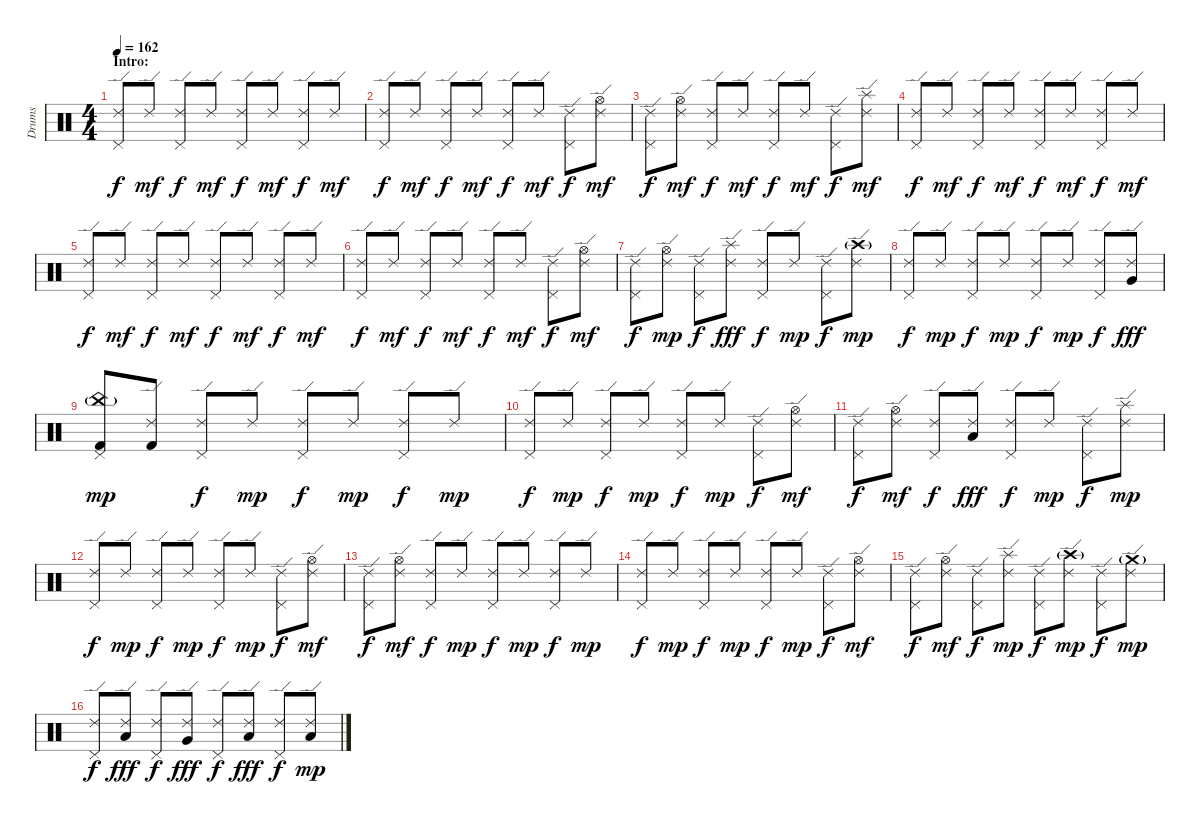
\track ("Drums" "Drums") {instrument percussion}
\staff {score}
\articulation defaults
\ts (4 4)
\section ("" "Intro:")
\tempo 162
\clef neutral
\ks c
("Ride (edge) 2" "Pedal Hi-Hat (hit)").8{dy f} "Ride (edge) 2".8{dy mf} ("Ride (edge) 2" "Pedal Hi-Hat (hit)").8{dy f} "Ride (edge) 2".8{dy mf} ("Ride (edge) 2" "Pedal Hi-Hat (hit)").8{dy f} "Ride (edge) 2".8{dy mf} ("Ride (edge) 2" "Pedal Hi-Hat (hit)").8{dy f} "Ride (edge) 2".8{dy mf} |
("Ride (edge) 2" "Pedal Hi-Hat (hit)").8{dy f} "Ride (edge) 2".8{dy mf} ("Ride (edge) 2" "Pedal Hi-Hat (hit)").8{dy f} "Ride (edge) 2".8{dy mf} ("Ride (edge) 2" "Pedal Hi-Hat (hit)").8{dy f} "Ride (edge) 2".8{dy mf} ("Ride (edge) 2" "Pedal Hi-Hat (hit)").8{dy f} ("Ride (edge) 2" "Hi-Hat (open)").8{dy mf} |
("Ride (edge) 2" "Pedal Hi-Hat (hit)").8{dy f} ("Ride (edge) 2" "Hi-Hat (open)").8{dy mf} ("Ride (edge) 2" "Pedal Hi-Hat (hit)").8{dy f} "Ride (edge) 2".8{dy mf} ("Ride (edge) 2" "Pedal Hi-Hat (hit)").8{dy f} "Ride (edge) 2".8{dy mf} ("Ride (edge) 2" "Pedal Hi-Hat (hit)").8{dy f} ("Ride (edge) 2" "Splash (hit)").8{dy mf} |
("Ride (edge) 2" "Pedal Hi-Hat (hit)").8{dy f} "Ride (edge) 2".8{dy mf} ("Ride (edge) 2" "Pedal Hi-Hat (hit)").8{dy f} "Ride (edge) 2".8{dy mf} ("Ride (edge) 2" "Pedal Hi-Hat (hit)").8{dy f} "Ride (edge) 2".8{dy mf} ("Ride (edge) 2" "Pedal Hi-Hat (hit)").8{dy f} "Ride (edge) 2".8{dy mf} |
("Ride (edge) 2" "Pedal Hi-Hat (hit)").8{dy f} "Ride (edge) 2".8{dy mf} ("Ride (edge) 2" "Pedal Hi-Hat (hit)").8{dy f} "Ride (edge) 2".8{dy mf} ("Ride (edge) 2" "Pedal Hi-Hat (hit)").8{dy f} "Ride (edge) 2".8{dy mf} ("Ride (edge) 2" "Pedal Hi-Hat (hit)").8{dy f} "Ride (edge) 2".8{dy mf} |
("Ride (edge) 2" "Pedal Hi-Hat (hit)").8{dy f} "Ride (edge) 2".8{dy mf} ("Ride (edge) 2" "Pedal Hi-Hat (hit)").8{dy f} "Ride (edge) 2".8{dy mf} ("Ride (edge) 2" "Pedal Hi-Hat (hit)").8{dy f} "Ride (edge) 2".8{dy mf} ("Ride (edge) 2" "Pedal Hi-Hat (hit)").8{dy f} ("Ride (edge) 2" "Hi-Hat (open)").8{dy mf} |
("Ride (edge) 2" "Pedal Hi-Hat (hit)").8{dy f} ("Ride (edge) 2" "Hi-Hat (open)").8{dy mp} ("Ride (edge) 2" "Pedal Hi-Hat (hit)").8{dy f} ("Ride (edge) 2" "Splash (hit)").8{dy fff} ("Ride (edge) 2" "Pedal Hi-Hat (hit)").8{dy f} "Ride (edge) 2".8{dy mp} ("Ride (edge) 2" "Pedal Hi-Hat (hit)").8{dy f} ("Ride (edge) 2" "Crash high (hit)"{g}).8{dy mp} |
("Ride (edge) 2" "Pedal Hi-Hat (hit)").8{dy f} "Ride (edge) 2".8{dy mp} ("Ride (edge) 2" "Pedal Hi-Hat (hit)").8{dy f} "Ride (edge) 2".8{dy mp} ("Ride (edge) 2" "Pedal Hi-Hat (hit)").8{dy f} "Ride (edge) 2".8{dy mp} ("Ride (edge) 2" "Pedal Hi-Hat (hit)").8{dy f} ("Ride (edge) 2" "Very Low Tom (hit)").8{dy fff} |
("China (hit)"{g} "Pedal Hi-Hat (hit)" "Kick (hit) 2").8{dy mp} ("Ride (edge) 2" "Kick (hit) 2").8 ("Ride (edge) 2" "Pedal Hi-Hat (hit)").8{dy f} "Ride (edge) 2".8{dy mp} ("Ride (edge) 2" "Pedal Hi-Hat (hit)").8{dy f} "Ride (edge) 2".8{dy mp} ("Ride (edge) 2" "Pedal Hi-Hat (hit)").8{dy f} "Ride (edge) 2".8{dy mp} |
("Ride (edge) 2" "Pedal Hi-Hat (hit)").8{dy f} "Ride (edge) 2".8{dy mp} ("Ride (edge) 2" "Pedal Hi-Hat (hit)").8{dy f} "Ride (edge) 2".8{dy mp} ("Ride (edge) 2" "Pedal Hi-Hat (hit)").8{dy f} "Ride (edge) 2".8{dy mp} ("Ride (edge) 2" "Pedal Hi-Hat (hit)").8{dy f} ("Ride (edge) 2" "Hi-Hat (open)").8{dy mf} |
("Ride (edge) 2" "Pedal Hi-Hat (hit)").8{dy f} ("Ride (edge) 2" "Hi-Hat (open)").8{dy mf} ("Ride (edge) 2" "Pedal Hi-Hat (hit)").8{dy f} ("Ride (edge) 2" "Low Tom (hit)").8{dy fff} ("Ride (edge) 2" "Pedal Hi-Hat (hit)").8{dy f} "Ride (edge) 2".8{dy mp} ("Ride (edge) 2" "Pedal Hi-Hat (hit)").8{dy f} ("Ride (edge) 2" "Splash (hit)").8{dy mp} |
("Ride (edge) 2" "Pedal Hi-Hat (hit)").8{dy f} "Ride (edge) 2".8{dy mp} ("Ride (edge) 2" "Pedal Hi-Hat (hit)").8{dy f} "Ride (edge) 2".8{dy mp} ("Ride (edge) 2" "Pedal Hi-Hat (hit)").8{dy f} "Ride (edge) 2".8{dy mp} ("Ride (edge) 2" "Pedal Hi-Hat (hit)").8{dy f} ("Ride (edge) 2" "Hi-Hat (open)").8{dy mf} |
("Ride (edge) 2" "Pedal Hi-Hat (hit)").8{dy f} ("Ride (edge) 2" "Hi-Hat (open)").8{dy mf} ("Ride (edge) 2" "Pedal Hi-Hat (hit)").8{dy f} "Ride (edge) 2".8{dy mp} ("Ride (edge) 2" "Pedal Hi-Hat (hit)").8{dy f} "Ride (edge) 2".8{dy mp} ("Ride (edge) 2" "Pedal Hi-Hat (hit)").8{dy f} "Ride (edge) 2".8{dy mp} |
("Ride (edge) 2" "Pedal Hi-Hat (hit)").8{dy f} "Ride (edge) 2".8{dy mp} ("Ride (edge) 2" "Pedal Hi-Hat (hit)").8{dy f} "Ride (edge) 2".8{dy mp} ("Ride (edge) 2" "Pedal Hi-Hat (hit)").8{dy f} "Ride (edge) 2".8{dy mp} ("Ride (edge) 2" "Pedal Hi-Hat (hit)").8{dy f} ("Ride (edge) 2" "Hi-Hat (open)").8{dy mf} |
("Ride (edge) 2" "Pedal Hi-Hat (hit)").8{dy f} ("Ride (edge) 2" "Hi-Hat (open)").8{dy mf} ("Ride (edge) 2" "Pedal Hi-Hat (hit)").8{dy f} ("Ride (edge) 2" "Splash (hit)").8{dy mp} ("Ride (edge) 2" "Pedal Hi-Hat (hit)").8{dy f} ("Ride (edge) 2" "Crash high (hit)"{g}).8{dy mp} ("Ride (edge) 2" "Pedal Hi-Hat (hit)").8{dy f} ("Ride (edge) 2" "Crash medium (hit)"{g}).8{dy mp} |
("Ride (edge) 2" "Pedal Hi-Hat (hit)").8{dy f} ("Ride (edge) 2" "Low Tom (hit)").8{dy fff} ("Ride (edge) 2" "Pedal Hi-Hat (hit)").8{dy f} ("Ride (edge) 2" "Very Low Tom (hit)").8{dy fff} ("Ride (edge) 2" "Pedal Hi-Hat (hit)").8{dy f} ("Ride (edge) 2" "Low Floor Tom (hit)").8{dy fff} ("Ride (edge) 2" "Pedal Hi-Hat (hit)").8{dy f} ("Ride (edge) 2" "Low Floor Tom (hit)").8{dy mp}
